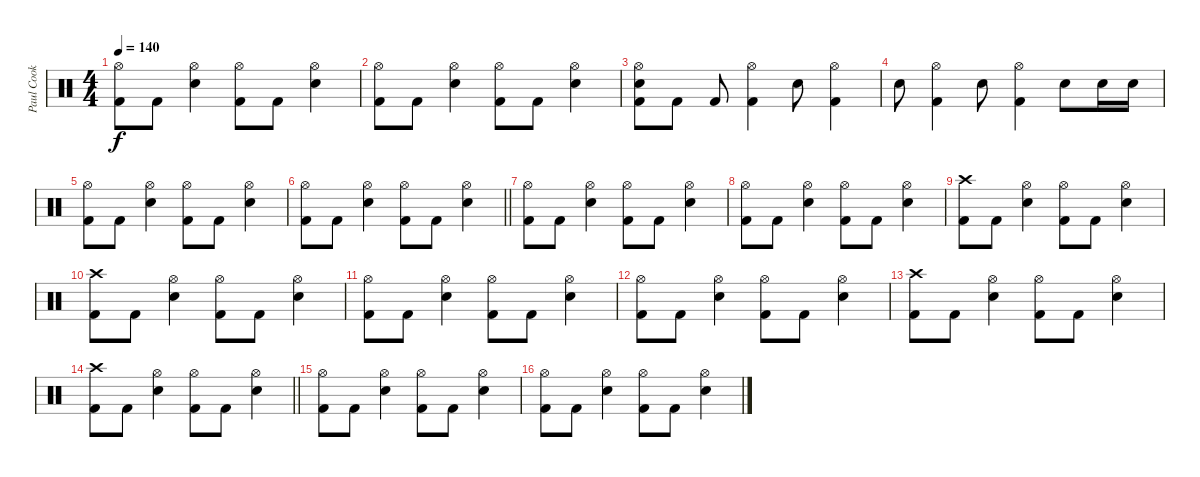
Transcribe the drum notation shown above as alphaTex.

\track ("Paul Cook" "Paul Cook") {instrument percussion}
\staff {score}
\articulation defaults
\ts (4 4)
\tempo 140
\clef neutral
\ks c
("Hi-Hat (open)" "Kick (hit) 2").8{dy f} "Kick (hit) 2".8 ("Hi-Hat (open)" "Electric Snare (hit)").4 ("Hi-Hat (open)" "Kick (hit) 2").8 "Kick (hit) 2".8 ("Hi-Hat (open)" "Electric Snare (hit)").4 |
("Hi-Hat (open)" "Kick (hit) 2").8 "Kick (hit) 2".8 ("Hi-Hat (open)" "Electric Snare (hit)").4 ("Hi-Hat (open)" "Kick (hit) 2").8 "Kick (hit) 2".8 ("Hi-Hat (open)" "Electric Snare (hit)").4 |
("Hi-Hat (open)" "Electric Snare (hit)" "Kick (hit) 2").8 "Kick (hit) 2".8 "Kick (hit) 2".8 ("Hi-Hat (open)" "Kick (hit) 2").4 "Electric Snare (hit)".8 ("Hi-Hat (open)" "Kick (hit) 2").4 |
"Electric Snare (hit)".8 ("Hi-Hat (open)" "Kick (hit) 2").4 "Electric Snare (hit)".8 ("Hi-Hat (open)" "Kick (hit) 2").4 "Electric Snare (hit)".8 "Electric Snare (hit)".16 "Electric Snare (hit)".16 |
("Hi-Hat (open)" "Kick (hit) 2").8 "Kick (hit) 2".8 ("Hi-Hat (open)" "Electric Snare (hit)").4 ("Hi-Hat (open)" "Kick (hit) 2").8 "Kick (hit) 2".8 ("Hi-Hat (open)" "Electric Snare (hit)").4 |
\barLineRight lightlight
("Hi-Hat (open)" "Kick (hit) 2").8 "Kick (hit) 2".8 ("Hi-Hat (open)" "Electric Snare (hit)").4 ("Hi-Hat (open)" "Kick (hit) 2").8 "Kick (hit) 2".8 ("Hi-Hat (open)" "Electric Snare (hit)").4 |
("Hi-Hat (open)" "Kick (hit) 2").8 "Kick (hit) 2".8 ("Hi-Hat (open)" "Electric Snare (hit)").4 ("Hi-Hat (open)" "Kick (hit) 2").8 "Kick (hit) 2".8 ("Hi-Hat (open)" "Electric Snare (hit)").4 |
("Hi-Hat (open)" "Kick (hit) 2").8 "Kick (hit) 2".8 ("Hi-Hat (open)" "Electric Snare (hit)").4 ("Hi-Hat (open)" "Kick (hit) 2").8 "Kick (hit) 2".8 ("Hi-Hat (open)" "Electric Snare (hit)").4 |
("Crash high (hit)" "Kick (hit) 2").8 "Kick (hit) 2".8 ("Hi-Hat (open)" "Electric Snare (hit)").4 ("Hi-Hat (open)" "Kick (hit) 2").8 "Kick (hit) 2".8 ("Hi-Hat (open)" "Electric Snare (hit)").4 |
("Crash high (hit)" "Kick (hit) 2").8 "Kick (hit) 2".8 ("Hi-Hat (open)" "Electric Snare (hit)").4 ("Hi-Hat (open)" "Kick (hit) 2").8 "Kick (hit) 2".8 ("Hi-Hat (open)" "Electric Snare (hit)").4 |
("Hi-Hat (open)" "Kick (hit) 2").8 "Kick (hit) 2".8 ("Hi-Hat (open)" "Electric Snare (hit)").4 ("Hi-Hat (open)" "Kick (hit) 2").8 "Kick (hit) 2".8 ("Hi-Hat (open)" "Electric Snare (hit)").4 |
("Hi-Hat (open)" "Kick (hit) 2").8 "Kick (hit) 2".8 ("Hi-Hat (open)" "Electric Snare (hit)").4 ("Hi-Hat (open)" "Kick (hit) 2").8 "Kick (hit) 2".8 ("Hi-Hat (open)" "Electric Snare (hit)").4 |
("Crash high (hit)" "Kick (hit) 2").8 "Kick (hit) 2".8 ("Hi-Hat (open)" "Electric Snare (hit)").4 ("Hi-Hat (open)" "Kick (hit) 2").8 "Kick (hit) 2".8 ("Hi-Hat (open)" "Electric Snare (hit)").4 |
\barLineRight lightlight
("Crash high (hit)" "Kick (hit) 2").8 "Kick (hit) 2".8 ("Hi-Hat (open)" "Electric Snare (hit)").4 ("Hi-Hat (open)" "Kick (hit) 2").8 "Kick (hit) 2".8 ("Hi-Hat (open)" "Electric Snare (hit)").4 |
("Hi-Hat (open)" "Kick (hit) 2").8 "Kick (hit) 2".8 ("Hi-Hat (open)" "Electric Snare (hit)").4 ("Hi-Hat (open)" "Kick (hit) 2").8 "Kick (hit) 2".8 ("Hi-Hat (open)" "Electric Snare (hit)").4 |
("Hi-Hat (open)" "Kick (hit) 2").8 "Kick (hit) 2".8 ("Hi-Hat (open)" "Electric Snare (hit)").4 ("Hi-Hat (open)" "Kick (hit) 2").8 "Kick (hit) 2".8 ("Hi-Hat (open)" "Electric Snare (hit)").4
